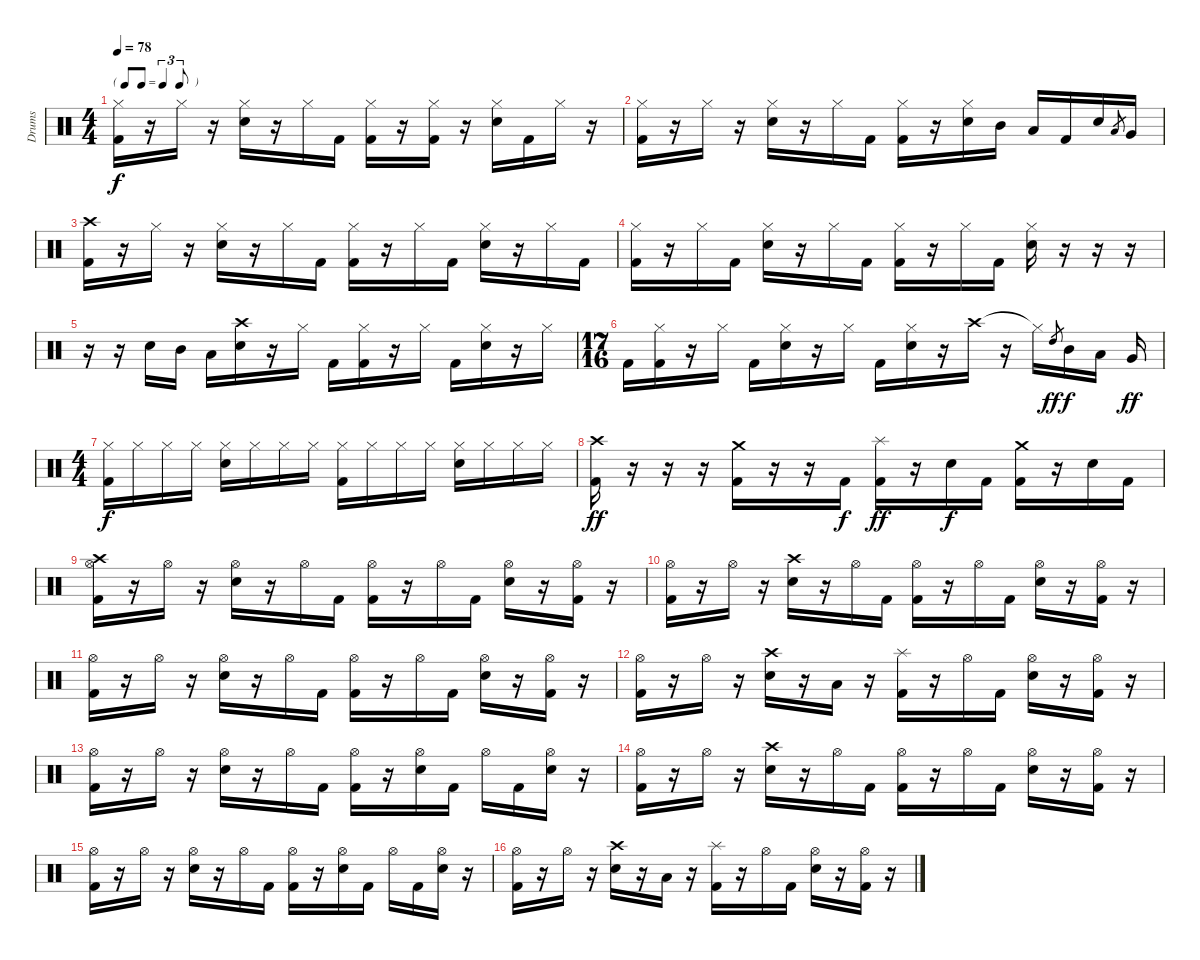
\track ("Drums" "Drums") {instrument percussion}
\staff {score}
\articulation defaults
\ts (4 4)
\tf triplet8th
\tempo 78
\clef neutral
\ks c
("Hi-Hat (closed)" "Kick (hit) 2").16{dy f} r.16 "Hi-Hat (closed)".16 r.16 ("Hi-Hat (closed)" "Electric Snare (hit)").16 r.16 "Hi-Hat (closed)".16 "Kick (hit) 2".16 ("Hi-Hat (closed)" "Kick (hit) 2").16 r.16 ("Hi-Hat (closed)" "Kick (hit) 2").16 r.16 ("Hi-Hat (closed)" "Electric Snare (hit)").16 "Kick (hit) 2".16 "Hi-Hat (closed)".16 r.16 |
("Hi-Hat (closed)" "Kick (hit) 2").16 r.16 "Hi-Hat (closed)".16 r.16 ("Hi-Hat (closed)" "Electric Snare (hit)").16 r.16 "Hi-Hat (closed)".16 "Kick (hit) 2".16 ("Hi-Hat (closed)" "Kick (hit) 2").16 r.16 ("Hi-Hat (closed)" "Electric Snare (hit)").16 "Mid Tom (hit)".16 "Low Tom (hit)".16 "Kick (hit) 2".16 "Electric Snare (hit)".16 "Low Tom (hit)".8{gr} "Very Low Tom (hit)".16 |
("Crash high (hit)" "Kick (hit) 2").16 r.16 "Hi-Hat (closed)".16 r.16 ("Hi-Hat (closed)" "Electric Snare (hit)").16 r.16 "Hi-Hat (closed)".16 "Kick (hit) 2".16 ("Hi-Hat (closed)" "Kick (hit) 2").16 r.16 "Hi-Hat (closed)".16 "Kick (hit) 2".16 ("Hi-Hat (closed)" "Electric Snare (hit)").16 r.16 "Hi-Hat (closed)".16 "Kick (hit) 2".16 |
("Hi-Hat (closed)" "Kick (hit) 2").16 r.16 "Hi-Hat (closed)".16 "Kick (hit) 2".16 ("Hi-Hat (closed)" "Electric Snare (hit)").16 r.16 "Hi-Hat (closed)".16 "Kick (hit) 2".16 ("Hi-Hat (closed)" "Kick (hit) 2").16 r.16 "Hi-Hat (closed)".16 "Kick (hit) 2".16 ("Hi-Hat (closed)" "Electric Snare (hit)").16 r.16 r.16 r.16 |
r.16 r.16 "Electric Snare (hit)".16 "Mid Tom (hit)".16 "Low Tom (hit)".16 ("Crash high (hit)" "Electric Snare (hit)").16 r.16 "Hi-Hat (closed)".16 "Kick (hit) 2".16 ("Hi-Hat (closed)" "Kick (hit) 2").16 r.16 "Hi-Hat (closed)".16 "Kick (hit) 2".16 ("Hi-Hat (closed)" "Electric Snare (hit)").16 r.16 "Hi-Hat (closed)".16 |
\ts (17 16)
"Kick (hit) 2".16 ("Hi-Hat (closed)" "Kick (hit) 2").16 r.16 "Hi-Hat (closed)".16 "Kick (hit) 2".16 ("Hi-Hat (closed)" "Electric Snare (hit)").16 r.16 "Hi-Hat (closed)".16 "Kick (hit) 2".16 ("Hi-Hat (closed)" "Electric Snare (hit)").16 r.16 "Crash high (hit)".16 r.16 "Hi-Hat (closed)"{t}.16 "High Tom (hit)".8{gr dy ff} "Mid Tom (hit)".16{dy f} "Low Tom (hit)".16 "Very Low Tom (hit)".16{dy ff} |
\ts (4 4)
("Hi-Hat (closed)" "Kick (hit) 2").16{dy f} "Hi-Hat (closed)".16 "Hi-Hat (closed)".16 "Hi-Hat (closed)".16 ("Hi-Hat (closed)" "Electric Snare (hit)").16 "Hi-Hat (closed)".16 "Hi-Hat (closed)".16 "Hi-Hat (closed)".16 ("Hi-Hat (closed)" "Kick (hit) 2").16 "Hi-Hat (closed)".16 "Hi-Hat (closed)".16 "Hi-Hat (closed)".16 ("Hi-Hat (closed)" "Electric Snare (hit)").16 "Hi-Hat (closed)".16 "Hi-Hat (closed)".16 "Hi-Hat (closed)".16 |
("Crash high (hit)" "Kick (hit) 2").16{dy ff} r.16 r.16 r.16 ("Crash medium (hit)" "Kick (hit) 2").16 r.16 r.16 "Kick (hit) 2".16{dy f} ("Splash (hit)" "Kick (hit) 2").16{dy ff} r.16 "Electric Snare (hit)".16{dy f} "Kick (hit) 2".16 ("Crash medium (hit)" "Kick (hit) 2").16 r.16 "Electric Snare (hit)".16 "Kick (hit) 2".16 |
("Hi-Hat (open)" "Crash high (hit)" "Kick (hit) 2").16 r.16 "Hi-Hat (open)".16 r.16 ("Hi-Hat (open)" "Electric Snare (hit)").16 r.16 "Hi-Hat (open)".16 "Kick (hit) 2".16 ("Hi-Hat (open)" "Kick (hit) 2").16 r.16 "Hi-Hat (open)".16 "Kick (hit) 2".16 ("Hi-Hat (open)" "Electric Snare (hit)").16 r.16 ("Hi-Hat (open)" "Kick (hit) 2").16 r.16 |
("Hi-Hat (open)" "Kick (hit) 2").16 r.16 "Hi-Hat (open)".16 r.16 ("Crash high (hit)" "Electric Snare (hit)").16 r.16 "Hi-Hat (open)".16 "Kick (hit) 2".16 ("Hi-Hat (open)" "Kick (hit) 2").16 r.16 "Hi-Hat (open)".16 "Kick (hit) 2".16 ("Hi-Hat (open)" "Electric Snare (hit)").16 r.16 ("Hi-Hat (open)" "Kick (hit) 2").16 r.16 |
("Hi-Hat (open)" "Kick (hit) 2").16 r.16 "Hi-Hat (open)".16 r.16 ("Hi-Hat (open)" "Electric Snare (hit)").16 r.16 "Hi-Hat (open)".16 "Kick (hit) 2".16 ("Hi-Hat (open)" "Kick (hit) 2").16 r.16 "Hi-Hat (open)".16 "Kick (hit) 2".16 ("Hi-Hat (open)" "Electric Snare (hit)").16 r.16 ("Hi-Hat (open)" "Kick (hit) 2").16 r.16 |
("Hi-Hat (open)" "Kick (hit) 2").16 r.16 "Hi-Hat (open)".16 r.16 ("Crash high (hit)" "Electric Snare (hit)").16 r.16 "Low Tom (hit)".16 r.16 ("Splash (hit)" "Kick (hit) 2").16 r.16 "Hi-Hat (open)".16 "Kick (hit) 2".16 ("Hi-Hat (open)" "Electric Snare (hit)").16 r.16 ("Hi-Hat (open)" "Kick (hit) 2").16 r.16 |
("Hi-Hat (open)" "Kick (hit) 2").16 r.16 "Hi-Hat (open)".16 r.16 ("Hi-Hat (open)" "Electric Snare (hit)").16 r.16 "Hi-Hat (open)".16 "Kick (hit) 2".16 ("Hi-Hat (open)" "Kick (hit) 2").16 r.16 ("Hi-Hat (open)" "Electric Snare (hit)").16 "Kick (hit) 2".16 "Hi-Hat (open)".16 "Kick (hit) 2".16 ("Hi-Hat (open)" "Electric Snare (hit)").16 r.16 |
("Hi-Hat (open)" "Kick (hit) 2").16 r.16 "Hi-Hat (open)".16 r.16 ("Crash high (hit)" "Electric Snare (hit)").16 r.16 "Hi-Hat (open)".16 "Kick (hit) 2".16 ("Hi-Hat (open)" "Kick (hit) 2").16 r.16 "Hi-Hat (open)".16 "Kick (hit) 2".16 ("Hi-Hat (open)" "Electric Snare (hit)").16 r.16 ("Hi-Hat (open)" "Kick (hit) 2").16 r.16 |
("Hi-Hat (open)" "Kick (hit) 2").16 r.16 "Hi-Hat (open)".16 r.16 ("Hi-Hat (open)" "Electric Snare (hit)").16 r.16 "Hi-Hat (open)".16 "Kick (hit) 2".16 ("Hi-Hat (open)" "Kick (hit) 2").16 r.16 ("Hi-Hat (open)" "Electric Snare (hit)").16 "Kick (hit) 2".16 "Hi-Hat (open)".16 "Kick (hit) 2".16 ("Hi-Hat (open)" "Electric Snare (hit)").16 r.16 |
("Hi-Hat (open)" "Kick (hit) 2").16 r.16 "Hi-Hat (open)".16 r.16 ("Crash high (hit)" "Electric Snare (hit)").16 r.16 "Low Tom (hit)".16 r.16 ("Splash (hit)" "Kick (hit) 2").16 r.16 "Hi-Hat (open)".16 "Kick (hit) 2".16 ("Hi-Hat (open)" "Electric Snare (hit)").16 r.16 ("Hi-Hat (open)" "Kick (hit) 2").16 r.16
